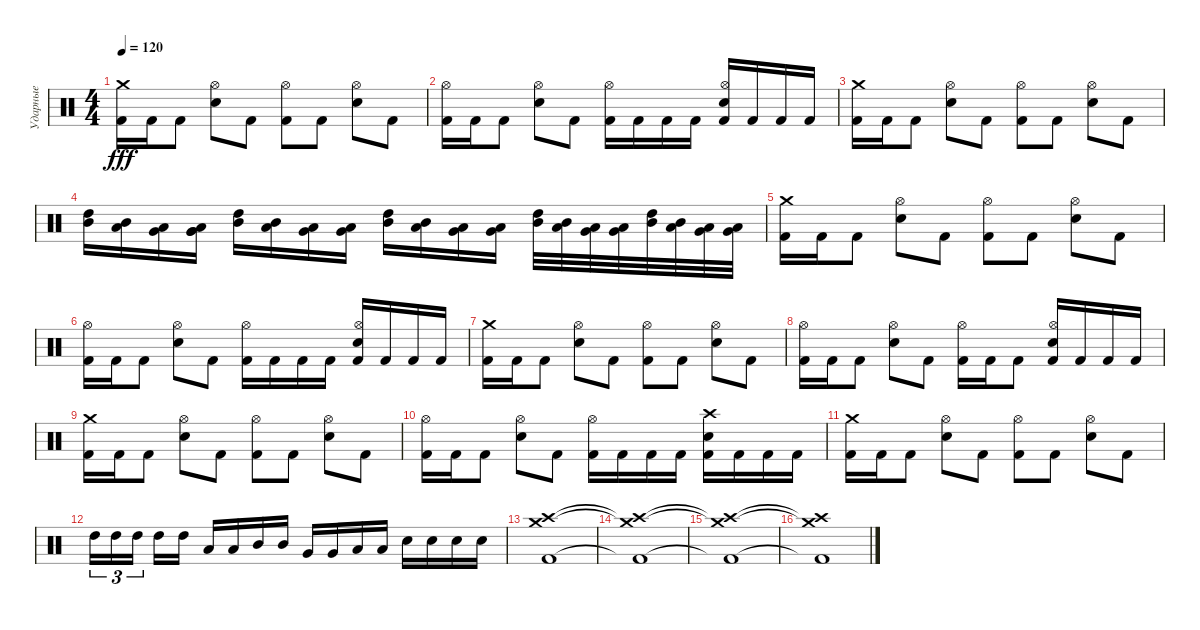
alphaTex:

\track ("Ударные" "Ударные") {instrument percussion}
\staff {score}
\articulation defaults
\ts (4 4)
\tempo 120
\clef neutral
\ks c
("Crash medium (hit)" "Kick (hit) 2").16{dy fff} "Kick (hit) 2".16 "Kick (hit) 2".8 ("Hi-Hat (open)" "Electric Snare (hit)").8 "Kick (hit) 2".8 ("Hi-Hat (open)" "Kick (hit) 2").8 "Kick (hit) 2".8 ("Hi-Hat (open)" "Electric Snare (hit)").8 "Kick (hit) 2".8 |
("Hi-Hat (open)" "Kick (hit) 2").16 "Kick (hit) 2".16 "Kick (hit) 2".8 ("Hi-Hat (open)" "Electric Snare (hit)").8 "Kick (hit) 2".8 ("Hi-Hat (open)" "Kick (hit) 2").16 "Kick (hit) 2".16 "Kick (hit) 2".16 "Kick (hit) 2".16 ("Hi-Hat (open)" "Electric Snare (hit)" "Kick (hit) 2").16 "Kick (hit) 2".16 "Kick (hit) 2".16 "Kick (hit) 2".16 |
("Crash medium (hit)" "Kick (hit) 2").16 "Kick (hit) 2".16 "Kick (hit) 2".8 ("Hi-Hat (open)" "Electric Snare (hit)").8 "Kick (hit) 2".8 ("Hi-Hat (open)" "Kick (hit) 2").8 "Kick (hit) 2".8 ("Hi-Hat (open)" "Electric Snare (hit)").8 "Kick (hit) 2".8 |
("High Tom (hit)" "Mid Tom (hit)").16 ("Mid Tom (hit)" "Low Tom (hit)").16 ("Low Tom (hit)" "Very Low Tom (hit)").16 ("Very Low Tom (hit)" "Very Low Tom (hit)" "Low Floor Tom (hit)").16 ("High Tom (hit)" "Mid Tom (hit)").16 ("Mid Tom (hit)" "Low Tom (hit)").16 ("Low Tom (hit)" "Very Low Tom (hit)").16 ("Very Low Tom (hit)" "Low Floor Tom (hit)").16 ("High Tom (hit)" "Mid Tom (hit)").16 ("Mid Tom (hit)" "Low Tom (hit)").16 ("Low Tom (hit)" "Very Low Tom (hit)").16 ("Very Low Tom (hit)" "Low Floor Tom (hit)").16 ("High Tom (hit)" "Mid Tom (hit)").32 ("Mid Tom (hit)" "Low Tom (hit)").32 ("Low Tom (hit)" "Very Low Tom (hit)").32 ("Very Low Tom (hit)" "Low Floor Tom (hit)").32 ("High Tom (hit)" "Mid Tom (hit)").32 ("Mid Tom (hit)" "Low Tom (hit)").32 ("Low Tom (hit)" "Very Low Tom (hit)").32 ("Very Low Tom (hit)" "Low Floor Tom (hit)").32 |
("Crash medium (hit)" "Kick (hit) 2").16 "Kick (hit) 2".16 "Kick (hit) 2".8 ("Hi-Hat (open)" "Electric Snare (hit)").8 "Kick (hit) 2".8 ("Hi-Hat (open)" "Kick (hit) 2").8 "Kick (hit) 2".8 ("Hi-Hat (open)" "Electric Snare (hit)").8 "Kick (hit) 2".8 |
("Hi-Hat (open)" "Kick (hit) 2").16 "Kick (hit) 2".16 "Kick (hit) 2".8 ("Hi-Hat (open)" "Electric Snare (hit)").8 "Kick (hit) 2".8 ("Hi-Hat (open)" "Kick (hit) 2").16 "Kick (hit) 2".16 "Kick (hit) 2".16 "Kick (hit) 2".16 ("Hi-Hat (open)" "Electric Snare (hit)" "Kick (hit) 2").16 "Kick (hit) 2".16 "Kick (hit) 2".16 "Kick (hit) 2".16 |
("Crash medium (hit)" "Kick (hit) 2").16 "Kick (hit) 2".16 "Kick (hit) 2".8 ("Hi-Hat (open)" "Electric Snare (hit)").8 "Kick (hit) 2".8 ("Hi-Hat (open)" "Kick (hit) 2").8 "Kick (hit) 2".8 ("Hi-Hat (open)" "Electric Snare (hit)").8 "Kick (hit) 2".8 |
("Hi-Hat (open)" "Kick (hit) 2").16 "Kick (hit) 2".16 "Kick (hit) 2".8 ("Hi-Hat (open)" "Electric Snare (hit)").8 "Kick (hit) 2".8 ("Hi-Hat (open)" "Kick (hit) 2").16 "Kick (hit) 2".16 "Kick (hit) 2".8 ("Hi-Hat (open)" "Electric Snare (hit)" "Kick (hit) 2").16 "Kick (hit) 2".16 "Kick (hit) 2".16 "Kick (hit) 2".16 |
("Crash medium (hit)" "Kick (hit) 2").16 "Kick (hit) 2".16 "Kick (hit) 2".8 ("Hi-Hat (open)" "Electric Snare (hit)").8 "Kick (hit) 2".8 ("Hi-Hat (open)" "Kick (hit) 2").8 "Kick (hit) 2".8 ("Hi-Hat (open)" "Electric Snare (hit)").8 "Kick (hit) 2".8 |
("Hi-Hat (open)" "Kick (hit) 2").16 "Kick (hit) 2".16 "Kick (hit) 2".8 ("Hi-Hat (open)" "Electric Snare (hit)").8 "Kick (hit) 2".8 ("Hi-Hat (open)" "Kick (hit) 2").16 "Kick (hit) 2".16 "Kick (hit) 2".16 "Kick (hit) 2".16 ("Crash high (hit)" "Electric Snare (hit)" "Kick (hit) 2").16 "Kick (hit) 2".16 "Kick (hit) 2".16 "Kick (hit) 2".16 |
("Crash medium (hit)" "Kick (hit) 2").16 "Kick (hit) 2".16 "Kick (hit) 2".8 ("Hi-Hat (open)" "Electric Snare (hit)").8 "Kick (hit) 2".8 ("Hi-Hat (open)" "Kick (hit) 2").8 "Kick (hit) 2".8 ("Hi-Hat (open)" "Electric Snare (hit)").8 "Kick (hit) 2".8 |
"High Tom (hit)".16{tu (3 2)} "High Tom (hit)".16{tu (3 2)} "High Tom (hit)".16{tu (3 2) beam splitsecondary} "High Tom (hit)".16 "High Tom (hit)".16 "Low Tom (hit)".16 "Low Tom (hit)".16 "Mid Tom (hit)".16 "Mid Tom (hit)".16 "Very Low Tom (hit)".16 "Very Low Tom (hit)".16 "Low Floor Tom (hit)".16 "Low Floor Tom (hit)".16 "Electric Snare (hit)".16 "Electric Snare (hit)".16 "Electric Snare (hit)".16 "Electric Snare (hit)".16 |
("Crash medium (hit)" "Crash high (hit)" "Kick (hit) 2").1 |
("Crash medium (hit)"{t} "Crash high (hit)"{t} "Kick (hit) 2"{t}).1 |
("Crash medium (hit)"{t} "Crash high (hit)"{t} "Kick (hit) 2"{t}).1 |
("Crash medium (hit)"{t} "Crash high (hit)"{t} "Kick (hit) 2"{t}).1
